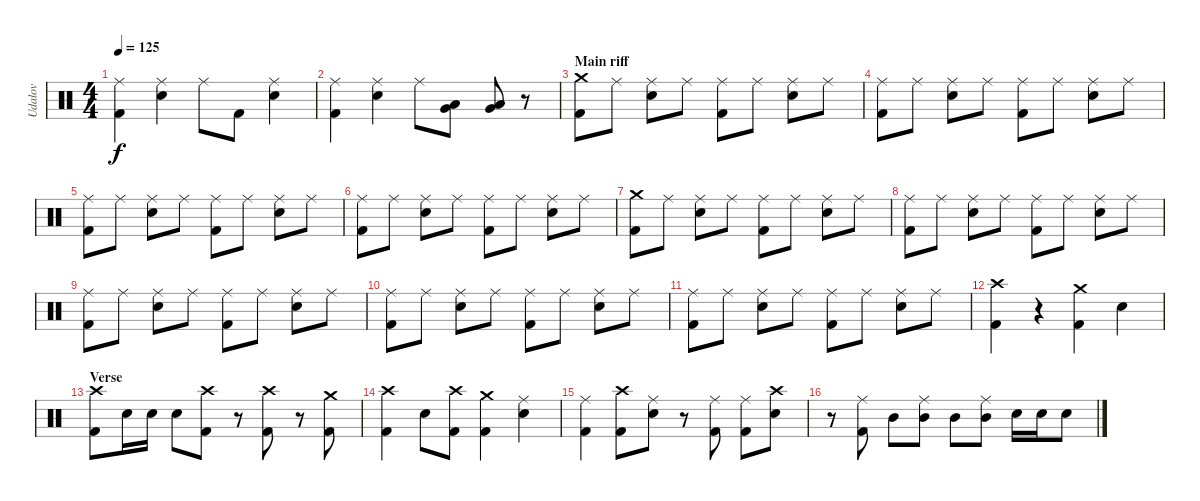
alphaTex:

\track ("Udalov" "Udalov") {instrument percussion}
\staff {score}
\articulation defaults
\ts (4 4)
\tempo 125
\clef neutral
\ks c
("Kick (hit) 2" "Ride (middle)").4{dy f} ("Snare (hit) 2" "Ride (middle)").4 "Ride (middle)".8 "Kick (hit) 2".8 ("Snare (hit) 2" "Ride (middle)").4 |
("Kick (hit) 2" "Ride (middle)").4 ("Snare (hit) 2" "Ride (middle)").4 "Ride (middle)".8 ("Low Tom (hit)" "Very Low Tom (hit)").8 ("Low Tom (hit)" "Very Low Tom (hit)").8 r.8 |
\section ("" "Main riff")
("Kick (hit) 2" "Crash medium (hit)").8 "Ride (middle)".8 ("Snare (hit) 2" "Ride (middle)").8 "Ride (middle)".8 ("Kick (hit) 2" "Ride (middle)").8 "Ride (middle)".8 ("Snare (hit) 2" "Ride (middle)").8 "Ride (middle)".8 |
("Kick (hit) 2" "Ride (middle)").8 "Ride (middle)".8 ("Snare (hit) 2" "Ride (middle)").8 "Ride (middle)".8 ("Kick (hit) 2" "Ride (middle)").8 "Ride (middle)".8 ("Snare (hit) 2" "Ride (middle)").8 "Ride (middle)".8 |
("Kick (hit) 2" "Ride (middle)").8 "Ride (middle)".8 ("Snare (hit) 2" "Ride (middle)").8 "Ride (middle)".8 ("Kick (hit) 2" "Ride (middle)").8 "Ride (middle)".8 ("Snare (hit) 2" "Ride (middle)").8 "Ride (middle)".8 |
("Kick (hit) 2" "Ride (middle)").8 "Ride (middle)".8 ("Snare (hit) 2" "Ride (middle)").8 "Ride (middle)".8 ("Kick (hit) 2" "Ride (middle)").8 "Ride (middle)".8 ("Snare (hit) 2" "Ride (middle)").8 "Ride (middle)".8 |
("Kick (hit) 2" "Crash medium (hit)").8 "Ride (middle)".8 ("Snare (hit) 2" "Ride (middle)").8 "Ride (middle)".8 ("Kick (hit) 2" "Ride (middle)").8 "Ride (middle)".8 ("Snare (hit) 2" "Ride (middle)").8 "Ride (middle)".8 |
("Kick (hit) 2" "Ride (middle)").8 "Ride (middle)".8 ("Snare (hit) 2" "Ride (middle)").8 "Ride (middle)".8 ("Kick (hit) 2" "Ride (middle)").8 "Ride (middle)".8 ("Snare (hit) 2" "Ride (middle)").8 "Ride (middle)".8 |
("Kick (hit) 2" "Ride (middle)").8 "Ride (middle)".8 ("Snare (hit) 2" "Ride (middle)").8 "Ride (middle)".8 ("Kick (hit) 2" "Ride (middle)").8 "Ride (middle)".8 ("Snare (hit) 2" "Ride (middle)").8 "Ride (middle)".8 |
("Kick (hit) 2" "Ride (middle)").8 "Ride (middle)".8 ("Snare (hit) 2" "Ride (middle)").8 "Ride (middle)".8 ("Kick (hit) 2" "Ride (middle)").8 "Ride (middle)".8 ("Snare (hit) 2" "Ride (middle)").8 "Ride (middle)".8 |
("Kick (hit) 2" "Ride (middle)").8 "Ride (middle)".8 ("Snare (hit) 2" "Ride (middle)").8 "Ride (middle)".8 ("Kick (hit) 2" "Ride (middle)").8 "Ride (middle)".8 ("Snare (hit) 2" "Ride (middle)").8 "Ride (middle)".8 |
("Kick (hit) 2" "Crash high (hit)").4 r.4 ("Kick (hit) 2" "Crash medium (hit)").4 "Snare (hit) 2".4 |
\section ("" "Verse")
("Kick (hit) 2" "Crash high (hit)").8 "Snare (hit) 2".16 "Electric Snare (hit)".16 "Snare (hit) 2".8 ("Kick (hit) 2" "Crash high (hit)").8 r.8 ("Kick (hit) 2" "Crash high (hit)").8 r.8 ("Kick (hit) 2" "Crash medium (hit)").8 |
("Kick (hit) 2" "Crash high (hit)").4 "Snare (hit) 2".8 ("Kick (hit) 2" "Crash high (hit)").8 ("Kick (hit) 2" "Crash medium (hit)").4 ("Snare (hit) 2" "Ride (middle)").4 |
("Kick (hit) 2" "Ride (middle)").4 ("Kick (hit) 2" "Crash high (hit)").8 ("Snare (hit) 2" "Ride (middle)").8 r.8 ("Kick (hit) 2" "Ride (middle)").8 ("Kick (hit) 2" "Ride (middle)").8 ("Snare (hit) 2" "Crash high (hit)").8 |
r.8 ("Kick (hit) 2" "Ride (middle)").8 "Mid Tom (hit)".8 ("Mid Tom (hit)" "Ride (middle)").8 "Mid Tom (hit)".8 ("Mid Tom (hit)" "Ride (middle)").8 "Electric Snare (hit)".16 "Electric Snare (hit)".16 "Electric Snare (hit)".8
